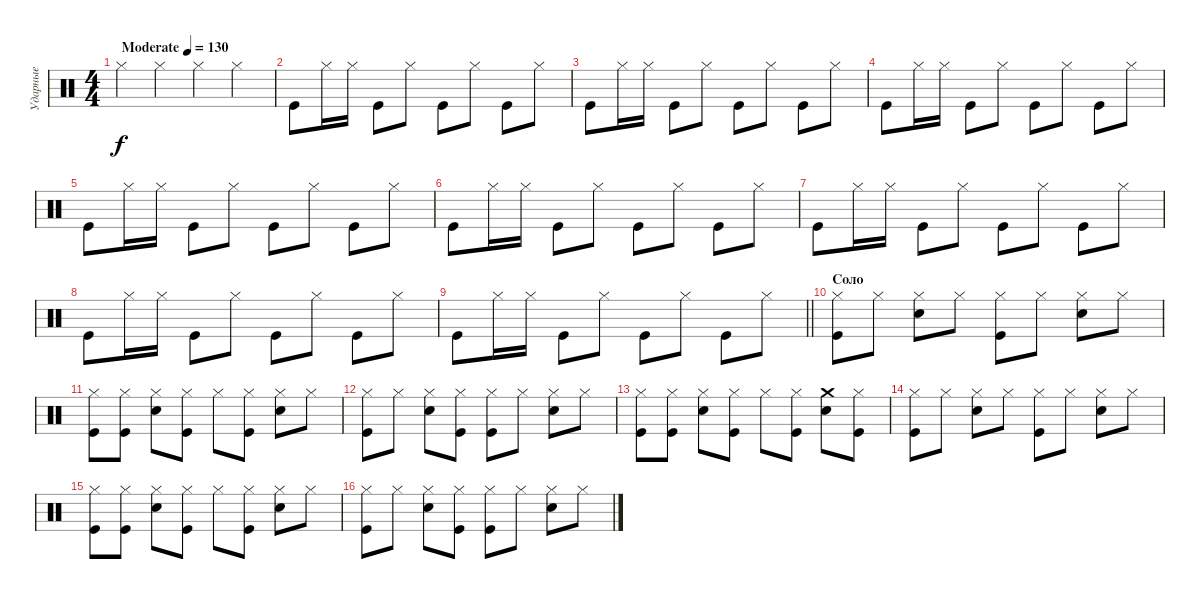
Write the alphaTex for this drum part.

\track ("Ударные" "Ударные") {instrument percussion}
\staff {score}
\articulation defaults
\ts (4 4)
\tempo (130 "Moderate")
\clef neutral
\ks c "Hi-Hat (closed)".4{dy f} "Hi-Hat (closed)".4 "Hi-Hat (closed)".4 "Hi-Hat (closed)".4
|
"Kick (hit)".8 "Hi-Hat (closed)".16 "Hi-Hat (closed)".16 "Kick (hit)".8 "Hi-Hat (closed)".8 "Kick (hit)".8 "Hi-Hat (closed)".8 "Kick (hit)".8 "Hi-Hat (closed)".8 |
"Kick (hit)".8 "Hi-Hat (closed)".16 "Hi-Hat (closed)".16 "Kick (hit)".8 "Hi-Hat (closed)".8 "Kick (hit)".8 "Hi-Hat (closed)".8 "Kick (hit)".8 "Hi-Hat (closed)".8 |
"Kick (hit)".8 "Hi-Hat (closed)".16 "Hi-Hat (closed)".16 "Kick (hit)".8 "Hi-Hat (closed)".8 "Kick (hit)".8 "Hi-Hat (closed)".8 "Kick (hit)".8 "Hi-Hat (closed)".8 |
"Kick (hit)".8 "Hi-Hat (closed)".16 "Hi-Hat (closed)".16 "Kick (hit)".8 "Hi-Hat (closed)".8 "Kick (hit)".8 "Hi-Hat (closed)".8 "Kick (hit)".8 "Hi-Hat (closed)".8 |
"Kick (hit)".8 "Hi-Hat (closed)".16 "Hi-Hat (closed)".16 "Kick (hit)".8 "Hi-Hat (closed)".8 "Kick (hit)".8 "Hi-Hat (closed)".8 "Kick (hit)".8 "Hi-Hat (closed)".8 |
"Kick (hit)".8 "Hi-Hat (closed)".16 "Hi-Hat (closed)".16 "Kick (hit)".8 "Hi-Hat (closed)".8 "Kick (hit)".8 "Hi-Hat (closed)".8 "Kick (hit)".8 "Hi-Hat (closed)".8 |
"Kick (hit)".8 "Hi-Hat (closed)".16 "Hi-Hat (closed)".16 "Kick (hit)".8 "Hi-Hat (closed)".8 "Kick (hit)".8 "Hi-Hat (closed)".8 "Kick (hit)".8 "Hi-Hat (closed)".8 |
\barLineRight lightlight "Kick (hit)".8 "Hi-Hat (closed)".16 "Hi-Hat (closed)".16 "Kick (hit)".8 "Hi-Hat (closed)".8 "Kick (hit)".8 "Hi-Hat (closed)".8 "Kick (hit)".8 "Hi-Hat (closed)".8
|
\section ("" "Соло")
("Hi-Hat (closed)" "Kick (hit)").8 "Hi-Hat (closed)".8 ("Hi-Hat (closed)" "Electric Snare (hit)").8 "Hi-Hat (closed)".8 ("Hi-Hat (closed)" "Kick (hit)").8 "Hi-Hat (closed)".8 ("Hi-Hat (closed)" "Electric Snare (hit)").8 "Hi-Hat (closed)".8 |
("Hi-Hat (closed)" "Kick (hit)").8 ("Hi-Hat (closed)" "Kick (hit)").8 ("Hi-Hat (closed)" "Electric Snare (hit)").8 ("Hi-Hat (closed)" "Kick (hit)").8 "Hi-Hat (closed)".8 ("Hi-Hat (closed)" "Kick (hit)").8 ("Hi-Hat (closed)" "Electric Snare (hit)").8 "Hi-Hat (closed)".8 |
("Hi-Hat (closed)" "Kick (hit)").8 "Hi-Hat (closed)".8 ("Hi-Hat (closed)" "Electric Snare (hit)").8 ("Hi-Hat (closed)" "Kick (hit)").8 ("Hi-Hat (closed)" "Kick (hit)").8 "Hi-Hat (closed)".8 ("Hi-Hat (closed)" "Electric Snare (hit)").8 "Hi-Hat (closed)".8 |
("Hi-Hat (closed)" "Kick (hit)").8 ("Hi-Hat (closed)" "Kick (hit)").8 ("Hi-Hat (closed)" "Electric Snare (hit)").8 ("Hi-Hat (closed)" "Kick (hit)").8 "Hi-Hat (closed)".8 ("Hi-Hat (closed)" "Kick (hit)").8 ("Crash medium (hit)" "Electric Snare (hit)").8 ("Hi-Hat (closed)" "Kick (hit)").8 |
("Hi-Hat (closed)" "Kick (hit)").8 "Hi-Hat (closed)".8 ("Hi-Hat (closed)" "Electric Snare (hit)").8 "Hi-Hat (closed)".8 ("Hi-Hat (closed)" "Kick (hit)").8 "Hi-Hat (closed)".8 ("Hi-Hat (closed)" "Electric Snare (hit)").8 "Hi-Hat (closed)".8 |
("Hi-Hat (closed)" "Kick (hit)").8 ("Hi-Hat (closed)" "Kick (hit)").8 ("Hi-Hat (closed)" "Electric Snare (hit)").8 ("Hi-Hat (closed)" "Kick (hit)").8 "Hi-Hat (closed)".8 ("Hi-Hat (closed)" "Kick (hit)").8 ("Hi-Hat (closed)" "Electric Snare (hit)").8 "Hi-Hat (closed)".8 |
("Hi-Hat (closed)" "Kick (hit)").8 "Hi-Hat (closed)".8 ("Hi-Hat (closed)" "Electric Snare (hit)").8 ("Hi-Hat (closed)" "Kick (hit)").8 ("Hi-Hat (closed)" "Kick (hit)").8 "Hi-Hat (closed)".8 ("Hi-Hat (closed)" "Electric Snare (hit)").8 "Hi-Hat (closed)".8
